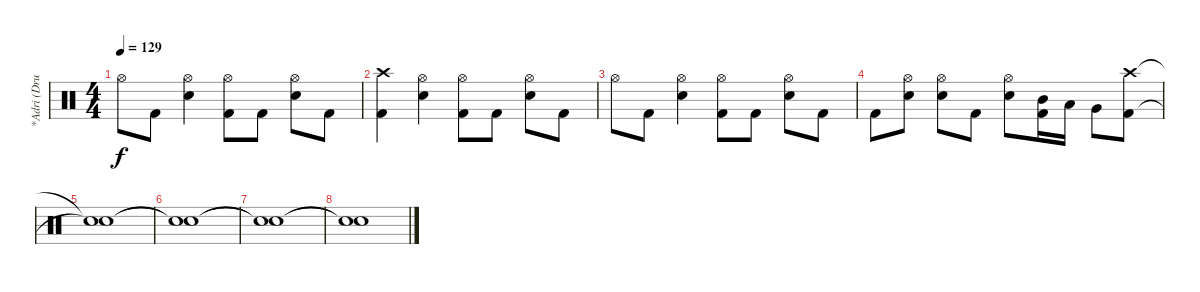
\track ("*Adri (Drum)" "*Adri (Dru") {instrument percussion}
\staff {score}
\articulation defaults
\ts (4 4)
\tempo 129
\clef neutral
\ks c "Hi-Hat (open)".8{dy f} "Kick (hit) 2".8
("Hi-Hat (open)" "Snare (hit) 2").4 ("Hi-Hat (open)" "Kick (hit) 2").8 "Kick (hit) 2".8 ("Hi-Hat (open)" "Snare (hit) 2").8 "Kick (hit) 2".8 |
("Crash high (hit)" "Kick (hit) 2").4 ("Hi-Hat (open)" "Snare (hit) 2").4 ("Hi-Hat (open)" "Kick (hit) 2").8 "Kick (hit) 2".8 ("Hi-Hat (open)" "Snare (hit) 2").8 "Kick (hit) 2".8 |
"Hi-Hat (open)".8 "Kick (hit) 2".8 ("Hi-Hat (open)" "Snare (hit) 2").4 ("Hi-Hat (open)" "Kick (hit) 2").8 "Kick (hit) 2".8 ("Hi-Hat (open)" "Snare (hit) 2").8 "Kick (hit) 2".8 |
"Kick (hit) 2".8 ("Hi-Hat (open)" "Snare (hit) 2").8 ("Hi-Hat (open)" "Snare (hit) 2").8 "Kick (hit) 2".8 ("Hi-Hat (open)" "Snare (hit) 2").8 ("Mid Tom (hit)" "Kick (hit) 2").16 "Low Tom (hit)".16 "Very Low Tom (hit)".8 ("Crash high (hit)" "Kick (hit) 2").8 |
("Snare (hit)"{t} "Snare (hit)"{t}).1 |
("Snare (hit)"{t} "Snare (hit)"{t}).1 |
("Snare (hit)"{t} "Snare (hit)"{t}).1 |
("Snare (hit)"{t} "Snare (hit)"{t}).1
